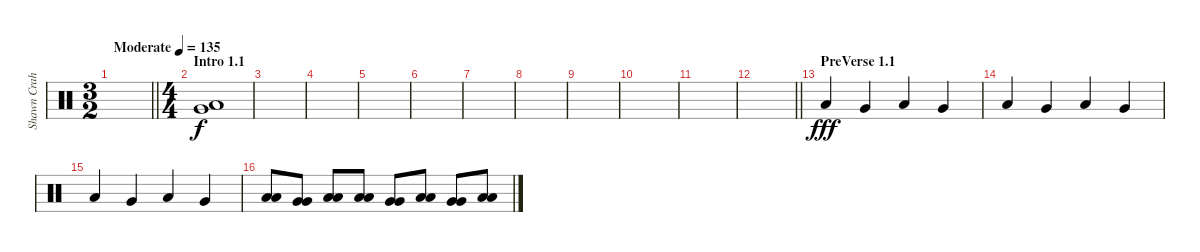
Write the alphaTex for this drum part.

\track ("Shawn Crahan" "Shawn Crah") {instrument percussion}
\staff {score}
\articulation defaults
\ts (3 2)
\tempo (135 "Moderate")
\clef neutral
\barLineRight lightlight
\ks c
|
\ts (4 4)
\section ("" "Intro 1.1")
("Very Low Tom (hit)" "Low Floor Tom (hit)").1 |
|
|
|
|
|
|
|
|
|
\barLineRight lightlight
|
\section ("" "PreVerse 1.1")
"Low Floor Tom (hit)".4{dy fff} "Very Low Tom (hit)".4 "Low Floor Tom (hit)".4 "Very Low Tom (hit)".4 |
"Low Floor Tom (hit)".4 "Very Low Tom (hit)".4 "Low Floor Tom (hit)".4 "Very Low Tom (hit)".4 |
"Low Floor Tom (hit)".4 "Very Low Tom (hit)".4 "Low Floor Tom (hit)".4 "Very Low Tom (hit)".4 |
("Low Tom (hit)" "Low Tom (hit)").8 ("Very Low Tom (hit)" "Very Low Tom (hit)").8 ("Low Floor Tom (hit)" "Low Floor Tom (hit)").8 ("Low Floor Tom (hit)" "Low Floor Tom (hit)").8 ("Very Low Tom (hit)" "Very Low Tom (hit)").8 ("Low Floor Tom (hit)" "Low Floor Tom (hit)").8 ("Very Low Tom (hit)" "Very Low Tom (hit)").8 ("Low Floor Tom (hit)" "Low Floor Tom (hit)").8
